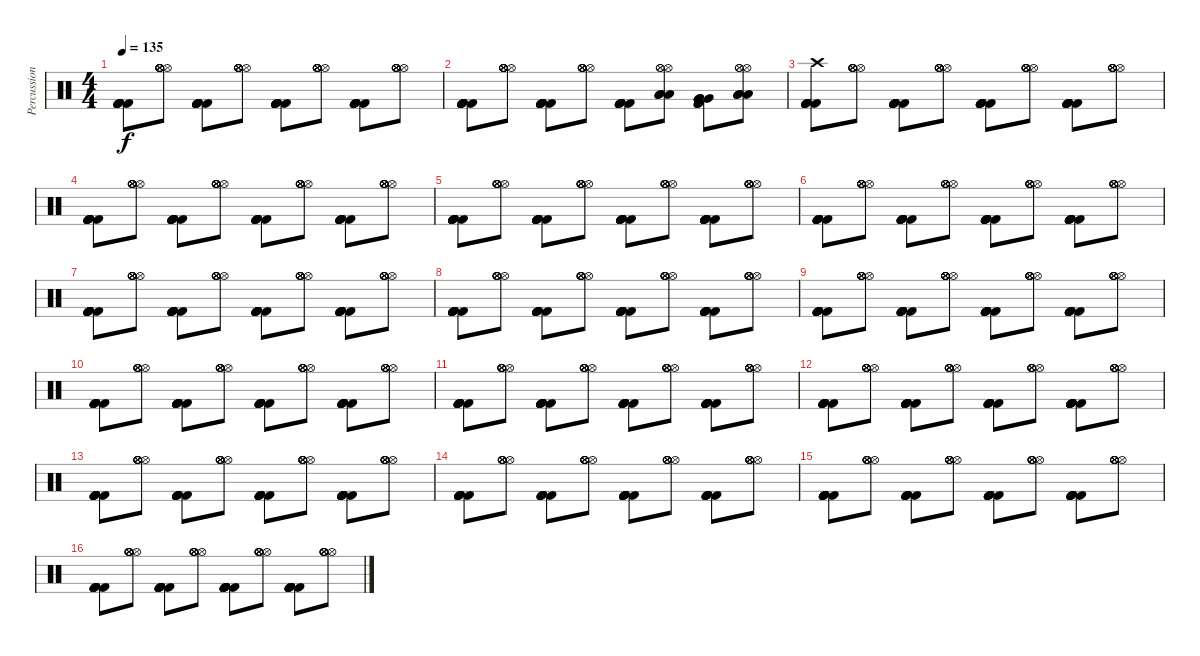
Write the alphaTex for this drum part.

\track ("Percussion" "Percussion") {instrument percussion}
\staff {score}
\articulation defaults
\ts (4 4)
\tempo 135
\clef neutral
\ks c
("Kick (hit) 2" "Kick (hit) 2" "Kick (hit) 2" "Kick (hit) 2" "Kick (hit) 2" "Kick (hit) 2").8{dy f} ("Hi-Hat (open)" "Hi-Hat (open)" "Hi-Hat (open)" "Hi-Hat (open)" "Hi-Hat (open)" "Hi-Hat (open)").8 ("Kick (hit) 2" "Kick (hit) 2" "Kick (hit) 2" "Kick (hit) 2" "Kick (hit) 2" "Kick (hit) 2").8 ("Hi-Hat (open)" "Hi-Hat (open)" "Hi-Hat (open)" "Hi-Hat (open)" "Hi-Hat (open)" "Hi-Hat (open)").8 ("Kick (hit) 2" "Kick (hit) 2" "Kick (hit) 2" "Kick (hit) 2" "Kick (hit) 2" "Kick (hit) 2").8 ("Hi-Hat (open)" "Hi-Hat (open)" "Hi-Hat (open)" "Hi-Hat (open)" "Hi-Hat (open)" "Hi-Hat (open)").8 ("Kick (hit) 2" "Kick (hit) 2" "Kick (hit) 2" "Kick (hit) 2" "Kick (hit) 2" "Kick (hit) 2").8 ("Hi-Hat (open)" "Hi-Hat (open)" "Hi-Hat (open)" "Hi-Hat (open)" "Hi-Hat (open)" "Hi-Hat (open)").8 |
("Kick (hit) 2" "Kick (hit) 2" "Kick (hit) 2" "Kick (hit) 2" "Kick (hit) 2" "Kick (hit) 2").8 ("Hi-Hat (open)" "Hi-Hat (open)" "Hi-Hat (open)" "Hi-Hat (open)" "Hi-Hat (open)" "Hi-Hat (open)").8 ("Kick (hit) 2" "Kick (hit) 2" "Kick (hit) 2" "Kick (hit) 2" "Kick (hit) 2" "Kick (hit) 2").8 ("Hi-Hat (open)" "Hi-Hat (open)" "Hi-Hat (open)" "Hi-Hat (open)" "Hi-Hat (open)" "Hi-Hat (open)").8 ("Kick (hit) 2" "Kick (hit) 2" "Kick (hit) 2" "Kick (hit) 2" "Kick (hit) 2" "Kick (hit) 2").8 ("Hi-Hat (open)" "Hi-Hat (open)" "Hi-Hat (open)" "Low Tom (hit)" "Low Tom (hit)" "Low Tom (hit)").8 ("Kick (hit) 2" "Kick (hit) 2" "Kick (hit) 2" "Very Low Tom (hit)" "Very Low Tom (hit)" "Very Low Tom (hit)").8 ("Hi-Hat (open)" "Hi-Hat (open)" "Hi-Hat (open)" "Low Floor Tom (hit)" "Low Floor Tom (hit)" "Low Floor Tom (hit)").8 |
("Crash high (hit)" "Kick (hit) 2" "Kick (hit) 2" "Kick (hit) 2" "Kick (hit) 2" "Kick (hit) 2").8 ("Hi-Hat (open)" "Hi-Hat (open)" "Hi-Hat (open)" "Hi-Hat (open)" "Hi-Hat (open)" "Hi-Hat (open)").8 ("Kick (hit) 2" "Kick (hit) 2" "Kick (hit) 2" "Kick (hit) 2" "Kick (hit) 2" "Kick (hit) 2").8 ("Hi-Hat (open)" "Hi-Hat (open)" "Hi-Hat (open)" "Hi-Hat (open)" "Hi-Hat (open)" "Hi-Hat (open)").8 ("Kick (hit) 2" "Kick (hit) 2" "Kick (hit) 2" "Kick (hit) 2" "Kick (hit) 2" "Kick (hit) 2").8 ("Hi-Hat (open)" "Hi-Hat (open)" "Hi-Hat (open)" "Hi-Hat (open)" "Hi-Hat (open)" "Hi-Hat (open)").8 ("Kick (hit) 2" "Kick (hit) 2" "Kick (hit) 2" "Kick (hit) 2" "Kick (hit) 2" "Kick (hit) 2").8 ("Hi-Hat (open)" "Hi-Hat (open)" "Hi-Hat (open)" "Hi-Hat (open)" "Hi-Hat (open)" "Hi-Hat (open)").8 |
("Kick (hit) 2" "Kick (hit) 2" "Kick (hit) 2" "Kick (hit) 2" "Kick (hit) 2" "Kick (hit) 2").8 ("Hi-Hat (open)" "Hi-Hat (open)" "Hi-Hat (open)" "Hi-Hat (open)" "Hi-Hat (open)" "Hi-Hat (open)").8 ("Kick (hit) 2" "Kick (hit) 2" "Kick (hit) 2" "Kick (hit) 2" "Kick (hit) 2" "Kick (hit) 2").8 ("Hi-Hat (open)" "Hi-Hat (open)" "Hi-Hat (open)" "Hi-Hat (open)" "Hi-Hat (open)" "Hi-Hat (open)").8 ("Kick (hit) 2" "Kick (hit) 2" "Kick (hit) 2" "Kick (hit) 2" "Kick (hit) 2" "Kick (hit) 2").8 ("Hi-Hat (open)" "Hi-Hat (open)" "Hi-Hat (open)" "Hi-Hat (open)" "Hi-Hat (open)" "Hi-Hat (open)").8 ("Kick (hit) 2" "Kick (hit) 2" "Kick (hit) 2" "Kick (hit) 2" "Kick (hit) 2" "Kick (hit) 2").8 ("Hi-Hat (open)" "Hi-Hat (open)" "Hi-Hat (open)" "Hi-Hat (open)" "Hi-Hat (open)" "Hi-Hat (open)").8 |
("Kick (hit) 2" "Kick (hit) 2" "Kick (hit) 2" "Kick (hit) 2" "Kick (hit) 2" "Kick (hit) 2").8 ("Hi-Hat (open)" "Hi-Hat (open)" "Hi-Hat (open)" "Hi-Hat (open)" "Hi-Hat (open)" "Hi-Hat (open)").8 ("Kick (hit) 2" "Kick (hit) 2" "Kick (hit) 2" "Kick (hit) 2" "Kick (hit) 2" "Kick (hit) 2").8 ("Hi-Hat (open)" "Hi-Hat (open)" "Hi-Hat (open)" "Hi-Hat (open)" "Hi-Hat (open)" "Hi-Hat (open)").8 ("Kick (hit) 2" "Kick (hit) 2" "Kick (hit) 2" "Kick (hit) 2" "Kick (hit) 2" "Kick (hit) 2").8 ("Hi-Hat (open)" "Hi-Hat (open)" "Hi-Hat (open)" "Hi-Hat (open)" "Hi-Hat (open)" "Hi-Hat (open)").8 ("Kick (hit) 2" "Kick (hit) 2" "Kick (hit) 2" "Kick (hit) 2" "Kick (hit) 2" "Kick (hit) 2").8 ("Hi-Hat (open)" "Hi-Hat (open)" "Hi-Hat (open)" "Hi-Hat (open)" "Hi-Hat (open)" "Hi-Hat (open)").8 |
("Kick (hit) 2" "Kick (hit) 2" "Kick (hit) 2" "Kick (hit) 2" "Kick (hit) 2" "Kick (hit) 2").8 ("Hi-Hat (open)" "Hi-Hat (open)" "Hi-Hat (open)" "Hi-Hat (open)" "Hi-Hat (open)" "Hi-Hat (open)").8 ("Kick (hit) 2" "Kick (hit) 2" "Kick (hit) 2" "Kick (hit) 2" "Kick (hit) 2" "Kick (hit) 2").8 ("Hi-Hat (open)" "Hi-Hat (open)" "Hi-Hat (open)" "Hi-Hat (open)" "Hi-Hat (open)" "Hi-Hat (open)").8 ("Kick (hit) 2" "Kick (hit) 2" "Kick (hit) 2" "Kick (hit) 2" "Kick (hit) 2" "Kick (hit) 2").8 ("Hi-Hat (open)" "Hi-Hat (open)" "Hi-Hat (open)" "Hi-Hat (open)" "Hi-Hat (open)" "Hi-Hat (open)").8 ("Kick (hit) 2" "Kick (hit) 2" "Kick (hit) 2" "Kick (hit) 2" "Kick (hit) 2" "Kick (hit) 2").8 ("Hi-Hat (open)" "Hi-Hat (open)" "Hi-Hat (open)" "Hi-Hat (open)" "Hi-Hat (open)" "Hi-Hat (open)").8 |
("Kick (hit) 2" "Kick (hit) 2" "Kick (hit) 2" "Kick (hit) 2" "Kick (hit) 2" "Kick (hit) 2").8 ("Hi-Hat (open)" "Hi-Hat (open)" "Hi-Hat (open)" "Hi-Hat (open)" "Hi-Hat (open)" "Hi-Hat (open)").8 ("Kick (hit) 2" "Kick (hit) 2" "Kick (hit) 2" "Kick (hit) 2" "Kick (hit) 2" "Kick (hit) 2").8 ("Hi-Hat (open)" "Hi-Hat (open)" "Hi-Hat (open)" "Hi-Hat (open)" "Hi-Hat (open)" "Hi-Hat (open)").8 ("Kick (hit) 2" "Kick (hit) 2" "Kick (hit) 2" "Kick (hit) 2" "Kick (hit) 2" "Kick (hit) 2").8 ("Hi-Hat (open)" "Hi-Hat (open)" "Hi-Hat (open)" "Hi-Hat (open)" "Hi-Hat (open)" "Hi-Hat (open)").8 ("Kick (hit) 2" "Kick (hit) 2" "Kick (hit) 2" "Kick (hit) 2" "Kick (hit) 2" "Kick (hit) 2").8 ("Hi-Hat (open)" "Hi-Hat (open)" "Hi-Hat (open)" "Hi-Hat (open)" "Hi-Hat (open)" "Hi-Hat (open)").8 |
("Kick (hit) 2" "Kick (hit) 2" "Kick (hit) 2" "Kick (hit) 2" "Kick (hit) 2" "Kick (hit) 2").8 ("Hi-Hat (open)" "Hi-Hat (open)" "Hi-Hat (open)" "Hi-Hat (open)" "Hi-Hat (open)" "Hi-Hat (open)").8 ("Kick (hit) 2" "Kick (hit) 2" "Kick (hit) 2" "Kick (hit) 2" "Kick (hit) 2" "Kick (hit) 2").8 ("Hi-Hat (open)" "Hi-Hat (open)" "Hi-Hat (open)" "Hi-Hat (open)" "Hi-Hat (open)" "Hi-Hat (open)").8 ("Kick (hit) 2" "Kick (hit) 2" "Kick (hit) 2" "Kick (hit) 2" "Kick (hit) 2" "Kick (hit) 2").8 ("Hi-Hat (open)" "Hi-Hat (open)" "Hi-Hat (open)" "Hi-Hat (open)" "Hi-Hat (open)" "Hi-Hat (open)").8 ("Kick (hit) 2" "Kick (hit) 2" "Kick (hit) 2" "Kick (hit) 2" "Kick (hit) 2" "Kick (hit) 2").8 ("Hi-Hat (open)" "Hi-Hat (open)" "Hi-Hat (open)" "Hi-Hat (open)" "Hi-Hat (open)" "Hi-Hat (open)").8 |
("Kick (hit) 2" "Kick (hit) 2" "Kick (hit) 2" "Kick (hit) 2" "Kick (hit) 2" "Kick (hit) 2").8 ("Hi-Hat (open)" "Hi-Hat (open)" "Hi-Hat (open)" "Hi-Hat (open)" "Hi-Hat (open)" "Hi-Hat (open)").8 ("Kick (hit) 2" "Kick (hit) 2" "Kick (hit) 2" "Kick (hit) 2" "Kick (hit) 2" "Kick (hit) 2").8 ("Hi-Hat (open)" "Hi-Hat (open)" "Hi-Hat (open)" "Hi-Hat (open)" "Hi-Hat (open)" "Hi-Hat (open)").8 ("Kick (hit) 2" "Kick (hit) 2" "Kick (hit) 2" "Kick (hit) 2" "Kick (hit) 2" "Kick (hit) 2").8 ("Hi-Hat (open)" "Hi-Hat (open)" "Hi-Hat (open)" "Hi-Hat (open)" "Hi-Hat (open)" "Hi-Hat (open)").8 ("Kick (hit) 2" "Kick (hit) 2" "Kick (hit) 2" "Kick (hit) 2" "Kick (hit) 2" "Kick (hit) 2").8 ("Hi-Hat (open)" "Hi-Hat (open)" "Hi-Hat (open)" "Hi-Hat (open)" "Hi-Hat (open)" "Hi-Hat (open)").8 |
("Kick (hit) 2" "Kick (hit) 2" "Kick (hit) 2" "Kick (hit) 2" "Kick (hit) 2" "Kick (hit) 2").8 ("Hi-Hat (open)" "Hi-Hat (open)" "Hi-Hat (open)" "Hi-Hat (open)" "Hi-Hat (open)" "Hi-Hat (open)").8 ("Kick (hit) 2" "Kick (hit) 2" "Kick (hit) 2" "Kick (hit) 2" "Kick (hit) 2" "Kick (hit) 2").8 ("Hi-Hat (open)" "Hi-Hat (open)" "Hi-Hat (open)" "Hi-Hat (open)" "Hi-Hat (open)" "Hi-Hat (open)").8 ("Kick (hit) 2" "Kick (hit) 2" "Kick (hit) 2" "Kick (hit) 2" "Kick (hit) 2" "Kick (hit) 2").8 ("Hi-Hat (open)" "Hi-Hat (open)" "Hi-Hat (open)" "Hi-Hat (open)" "Hi-Hat (open)" "Hi-Hat (open)").8 ("Kick (hit) 2" "Kick (hit) 2" "Kick (hit) 2" "Kick (hit) 2" "Kick (hit) 2" "Kick (hit) 2").8 ("Hi-Hat (open)" "Hi-Hat (open)" "Hi-Hat (open)" "Hi-Hat (open)" "Hi-Hat (open)" "Hi-Hat (open)").8 |
("Kick (hit) 2" "Kick (hit) 2" "Kick (hit) 2" "Kick (hit) 2" "Kick (hit) 2" "Kick (hit) 2").8 ("Hi-Hat (open)" "Hi-Hat (open)" "Hi-Hat (open)" "Hi-Hat (open)" "Hi-Hat (open)" "Hi-Hat (open)").8 ("Kick (hit) 2" "Kick (hit) 2" "Kick (hit) 2" "Kick (hit) 2" "Kick (hit) 2" "Kick (hit) 2").8 ("Hi-Hat (open)" "Hi-Hat (open)" "Hi-Hat (open)" "Hi-Hat (open)" "Hi-Hat (open)" "Hi-Hat (open)").8 ("Kick (hit) 2" "Kick (hit) 2" "Kick (hit) 2" "Kick (hit) 2" "Kick (hit) 2" "Kick (hit) 2").8 ("Hi-Hat (open)" "Hi-Hat (open)" "Hi-Hat (open)" "Hi-Hat (open)" "Hi-Hat (open)" "Hi-Hat (open)").8 ("Kick (hit) 2" "Kick (hit) 2" "Kick (hit) 2" "Kick (hit) 2" "Kick (hit) 2" "Kick (hit) 2").8 ("Hi-Hat (open)" "Hi-Hat (open)" "Hi-Hat (open)" "Hi-Hat (open)" "Hi-Hat (open)" "Hi-Hat (open)").8 |
("Kick (hit) 2" "Kick (hit) 2" "Kick (hit) 2" "Kick (hit) 2" "Kick (hit) 2" "Kick (hit) 2").8 ("Hi-Hat (open)" "Hi-Hat (open)" "Hi-Hat (open)" "Hi-Hat (open)" "Hi-Hat (open)" "Hi-Hat (open)").8 ("Kick (hit) 2" "Kick (hit) 2" "Kick (hit) 2" "Kick (hit) 2" "Kick (hit) 2" "Kick (hit) 2").8 ("Hi-Hat (open)" "Hi-Hat (open)" "Hi-Hat (open)" "Hi-Hat (open)" "Hi-Hat (open)" "Hi-Hat (open)").8 ("Kick (hit) 2" "Kick (hit) 2" "Kick (hit) 2" "Kick (hit) 2" "Kick (hit) 2" "Kick (hit) 2").8 ("Hi-Hat (open)" "Hi-Hat (open)" "Hi-Hat (open)" "Hi-Hat (open)" "Hi-Hat (open)" "Hi-Hat (open)").8 ("Kick (hit) 2" "Kick (hit) 2" "Kick (hit) 2" "Kick (hit) 2" "Kick (hit) 2" "Kick (hit) 2").8 ("Hi-Hat (open)" "Hi-Hat (open)" "Hi-Hat (open)" "Hi-Hat (open)" "Hi-Hat (open)" "Hi-Hat (open)").8 |
("Kick (hit) 2" "Kick (hit) 2" "Kick (hit) 2" "Kick (hit) 2" "Kick (hit) 2" "Kick (hit) 2").8 ("Hi-Hat (open)" "Hi-Hat (open)" "Hi-Hat (open)" "Hi-Hat (open)" "Hi-Hat (open)" "Hi-Hat (open)").8 ("Kick (hit) 2" "Kick (hit) 2" "Kick (hit) 2" "Kick (hit) 2" "Kick (hit) 2" "Kick (hit) 2").8 ("Hi-Hat (open)" "Hi-Hat (open)" "Hi-Hat (open)" "Hi-Hat (open)" "Hi-Hat (open)" "Hi-Hat (open)").8 ("Kick (hit) 2" "Kick (hit) 2" "Kick (hit) 2" "Kick (hit) 2" "Kick (hit) 2" "Kick (hit) 2").8 ("Hi-Hat (open)" "Hi-Hat (open)" "Hi-Hat (open)" "Hi-Hat (open)" "Hi-Hat (open)" "Hi-Hat (open)").8 ("Kick (hit) 2" "Kick (hit) 2" "Kick (hit) 2" "Kick (hit) 2" "Kick (hit) 2" "Kick (hit) 2").8 ("Hi-Hat (open)" "Hi-Hat (open)" "Hi-Hat (open)" "Hi-Hat (open)" "Hi-Hat (open)" "Hi-Hat (open)").8 |
("Kick (hit) 2" "Kick (hit) 2" "Kick (hit) 2" "Kick (hit) 2" "Kick (hit) 2" "Kick (hit) 2").8 ("Hi-Hat (open)" "Hi-Hat (open)" "Hi-Hat (open)" "Hi-Hat (open)" "Hi-Hat (open)" "Hi-Hat (open)").8 ("Kick (hit) 2" "Kick (hit) 2" "Kick (hit) 2" "Kick (hit) 2" "Kick (hit) 2" "Kick (hit) 2").8 ("Hi-Hat (open)" "Hi-Hat (open)" "Hi-Hat (open)" "Hi-Hat (open)" "Hi-Hat (open)" "Hi-Hat (open)").8 ("Kick (hit) 2" "Kick (hit) 2" "Kick (hit) 2" "Kick (hit) 2" "Kick (hit) 2" "Kick (hit) 2").8 ("Hi-Hat (open)" "Hi-Hat (open)" "Hi-Hat (open)" "Hi-Hat (open)" "Hi-Hat (open)" "Hi-Hat (open)").8 ("Kick (hit) 2" "Kick (hit) 2" "Kick (hit) 2" "Kick (hit) 2" "Kick (hit) 2" "Kick (hit) 2").8 ("Hi-Hat (open)" "Hi-Hat (open)" "Hi-Hat (open)" "Hi-Hat (open)" "Hi-Hat (open)" "Hi-Hat (open)").8 |
("Kick (hit) 2" "Kick (hit) 2" "Kick (hit) 2" "Kick (hit) 2" "Kick (hit) 2" "Kick (hit) 2").8 ("Hi-Hat (open)" "Hi-Hat (open)" "Hi-Hat (open)" "Hi-Hat (open)" "Hi-Hat (open)" "Hi-Hat (open)").8 ("Kick (hit) 2" "Kick (hit) 2" "Kick (hit) 2" "Kick (hit) 2" "Kick (hit) 2" "Kick (hit) 2").8 ("Hi-Hat (open)" "Hi-Hat (open)" "Hi-Hat (open)" "Hi-Hat (open)" "Hi-Hat (open)" "Hi-Hat (open)").8 ("Kick (hit) 2" "Kick (hit) 2" "Kick (hit) 2" "Kick (hit) 2" "Kick (hit) 2" "Kick (hit) 2").8 ("Hi-Hat (open)" "Hi-Hat (open)" "Hi-Hat (open)" "Hi-Hat (open)" "Hi-Hat (open)" "Hi-Hat (open)").8 ("Kick (hit) 2" "Kick (hit) 2" "Kick (hit) 2" "Kick (hit) 2" "Kick (hit) 2" "Kick (hit) 2").8 ("Hi-Hat (open)" "Hi-Hat (open)" "Hi-Hat (open)" "Hi-Hat (open)" "Hi-Hat (open)" "Hi-Hat (open)").8 |
("Kick (hit) 2" "Kick (hit) 2" "Kick (hit) 2" "Kick (hit) 2" "Kick (hit) 2" "Kick (hit) 2").8 ("Hi-Hat (open)" "Hi-Hat (open)" "Hi-Hat (open)" "Hi-Hat (open)" "Hi-Hat (open)" "Hi-Hat (open)").8 ("Kick (hit) 2" "Kick (hit) 2" "Kick (hit) 2" "Kick (hit) 2" "Kick (hit) 2" "Kick (hit) 2").8 ("Hi-Hat (open)" "Hi-Hat (open)" "Hi-Hat (open)" "Hi-Hat (open)" "Hi-Hat (open)" "Hi-Hat (open)").8 ("Kick (hit) 2" "Kick (hit) 2" "Kick (hit) 2" "Kick (hit) 2" "Kick (hit) 2" "Kick (hit) 2").8 ("Hi-Hat (open)" "Hi-Hat (open)" "Hi-Hat (open)" "Hi-Hat (open)" "Hi-Hat (open)" "Hi-Hat (open)").8 ("Kick (hit) 2" "Kick (hit) 2" "Kick (hit) 2" "Kick (hit) 2" "Kick (hit) 2" "Kick (hit) 2").8 ("Hi-Hat (open)" "Hi-Hat (open)" "Hi-Hat (open)" "Hi-Hat (open)" "Hi-Hat (open)" "Hi-Hat (open)").8
